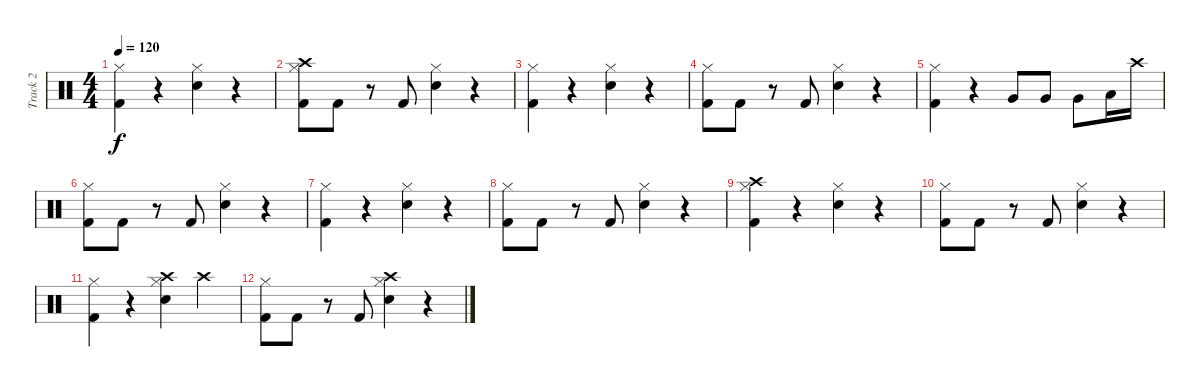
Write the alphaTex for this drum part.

\track ("Track 2" "Track 2") {instrument percussion}
\staff {score}
\articulation defaults
\ts (4 4)
\tempo 120
\clef neutral
\ks c
("Hi-Hat (closed)" "Kick (hit) 2").4{dy f} r.4 ("Hi-Hat (closed)" "Snare (hit) 2").4 r.4 |
("Hi-Hat (closed)" "Crash high (hit)" "Kick (hit) 2").8 "Kick (hit) 2".8 r.8 "Kick (hit) 2".8 ("Hi-Hat (closed)" "Snare (hit) 2").4 r.4 |
("Hi-Hat (closed)" "Kick (hit) 2").4 r.4 ("Hi-Hat (closed)" "Snare (hit) 2").4 r.4 |
("Hi-Hat (closed)" "Kick (hit) 2").8 "Kick (hit) 2".8 r.8 "Kick (hit) 2".8 ("Hi-Hat (closed)" "Snare (hit) 2").4 r.4 |
("Hi-Hat (closed)" "Kick (hit) 2").4 r.4 "Very Low Tom (hit)".8 "Very Low Tom (hit)".8 "Very Low Tom (hit)".8 "Low Floor Tom (hit)".16 "Crash high (hit)".16 |
("Hi-Hat (closed)" "Kick (hit) 2").8 "Kick (hit) 2".8 r.8 "Kick (hit) 2".8 ("Hi-Hat (closed)" "Snare (hit) 2").4 r.4 |
("Hi-Hat (closed)" "Kick (hit) 2").4 r.4 ("Hi-Hat (closed)" "Snare (hit) 2").4 r.4 |
("Hi-Hat (closed)" "Kick (hit) 2").8 "Kick (hit) 2".8 r.8 "Kick (hit) 2".8 ("Hi-Hat (closed)" "Snare (hit) 2").4 r.4 |
("Hi-Hat (closed)" "Crash high (hit)" "Kick (hit) 2").4 r.4 ("Hi-Hat (closed)" "Snare (hit) 2").4 r.4 |
("Hi-Hat (closed)" "Kick (hit) 2").8 "Kick (hit) 2".8 r.8 "Kick (hit) 2".8 ("Hi-Hat (closed)" "Snare (hit) 2").4 r.4 |
("Hi-Hat (closed)" "Kick (hit) 2").4 r.4 ("Hi-Hat (closed)" "Crash high (hit)" "Snare (hit) 2").4 "Crash high (hit)".4 |
("Hi-Hat (closed)" "Kick (hit) 2").8 "Kick (hit) 2".8 r.8 "Kick (hit) 2".8 ("Hi-Hat (closed)" "Crash high (hit)" "Snare (hit) 2").4 r.4
